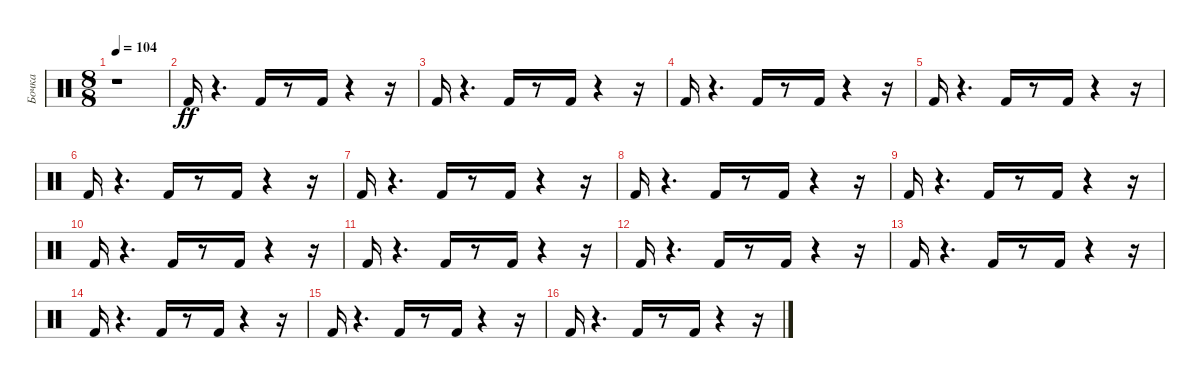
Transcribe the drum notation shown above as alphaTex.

\track ("Бочка" "Бочка") {instrument percussion}
\staff {score}
\articulation defaults
\ts (8 8)
\tempo 104
\clef neutral
\ks c
r.1{dy ff} |
"Kick (hit) 2".16 r.4{d} "Kick (hit) 2".16 r.8 "Kick (hit) 2".16 r.4 r.16 |
"Kick (hit) 2".16 r.4{d} "Kick (hit) 2".16 r.8 "Kick (hit) 2".16 r.4 r.16 |
"Kick (hit) 2".16 r.4{d} "Kick (hit) 2".16 r.8 "Kick (hit) 2".16 r.4 r.16 |
"Kick (hit) 2".16 r.4{d} "Kick (hit) 2".16 r.8 "Kick (hit) 2".16 r.4 r.16 |
"Kick (hit) 2".16 r.4{d} "Kick (hit) 2".16 r.8 "Kick (hit) 2".16 r.4 r.16 |
"Kick (hit) 2".16 r.4{d} "Kick (hit) 2".16 r.8 "Kick (hit) 2".16 r.4 r.16 |
"Kick (hit) 2".16 r.4{d} "Kick (hit) 2".16 r.8 "Kick (hit) 2".16 r.4 r.16 |
"Kick (hit) 2".16 r.4{d} "Kick (hit) 2".16 r.8 "Kick (hit) 2".16 r.4 r.16 |
"Kick (hit) 2".16 r.4{d} "Kick (hit) 2".16 r.8 "Kick (hit) 2".16 r.4 r.16 |
"Kick (hit) 2".16 r.4{d} "Kick (hit) 2".16 r.8 "Kick (hit) 2".16 r.4 r.16 |
"Kick (hit) 2".16 r.4{d} "Kick (hit) 2".16 r.8 "Kick (hit) 2".16 r.4 r.16 |
"Kick (hit) 2".16 r.4{d} "Kick (hit) 2".16 r.8 "Kick (hit) 2".16 r.4 r.16 |
"Kick (hit) 2".16 r.4{d} "Kick (hit) 2".16 r.8 "Kick (hit) 2".16 r.4 r.16 |
"Kick (hit) 2".16 r.4{d} "Kick (hit) 2".16 r.8 "Kick (hit) 2".16 r.4 r.16 |
"Kick (hit) 2".16 r.4{d} "Kick (hit) 2".16 r.8 "Kick (hit) 2".16 r.4 r.16
